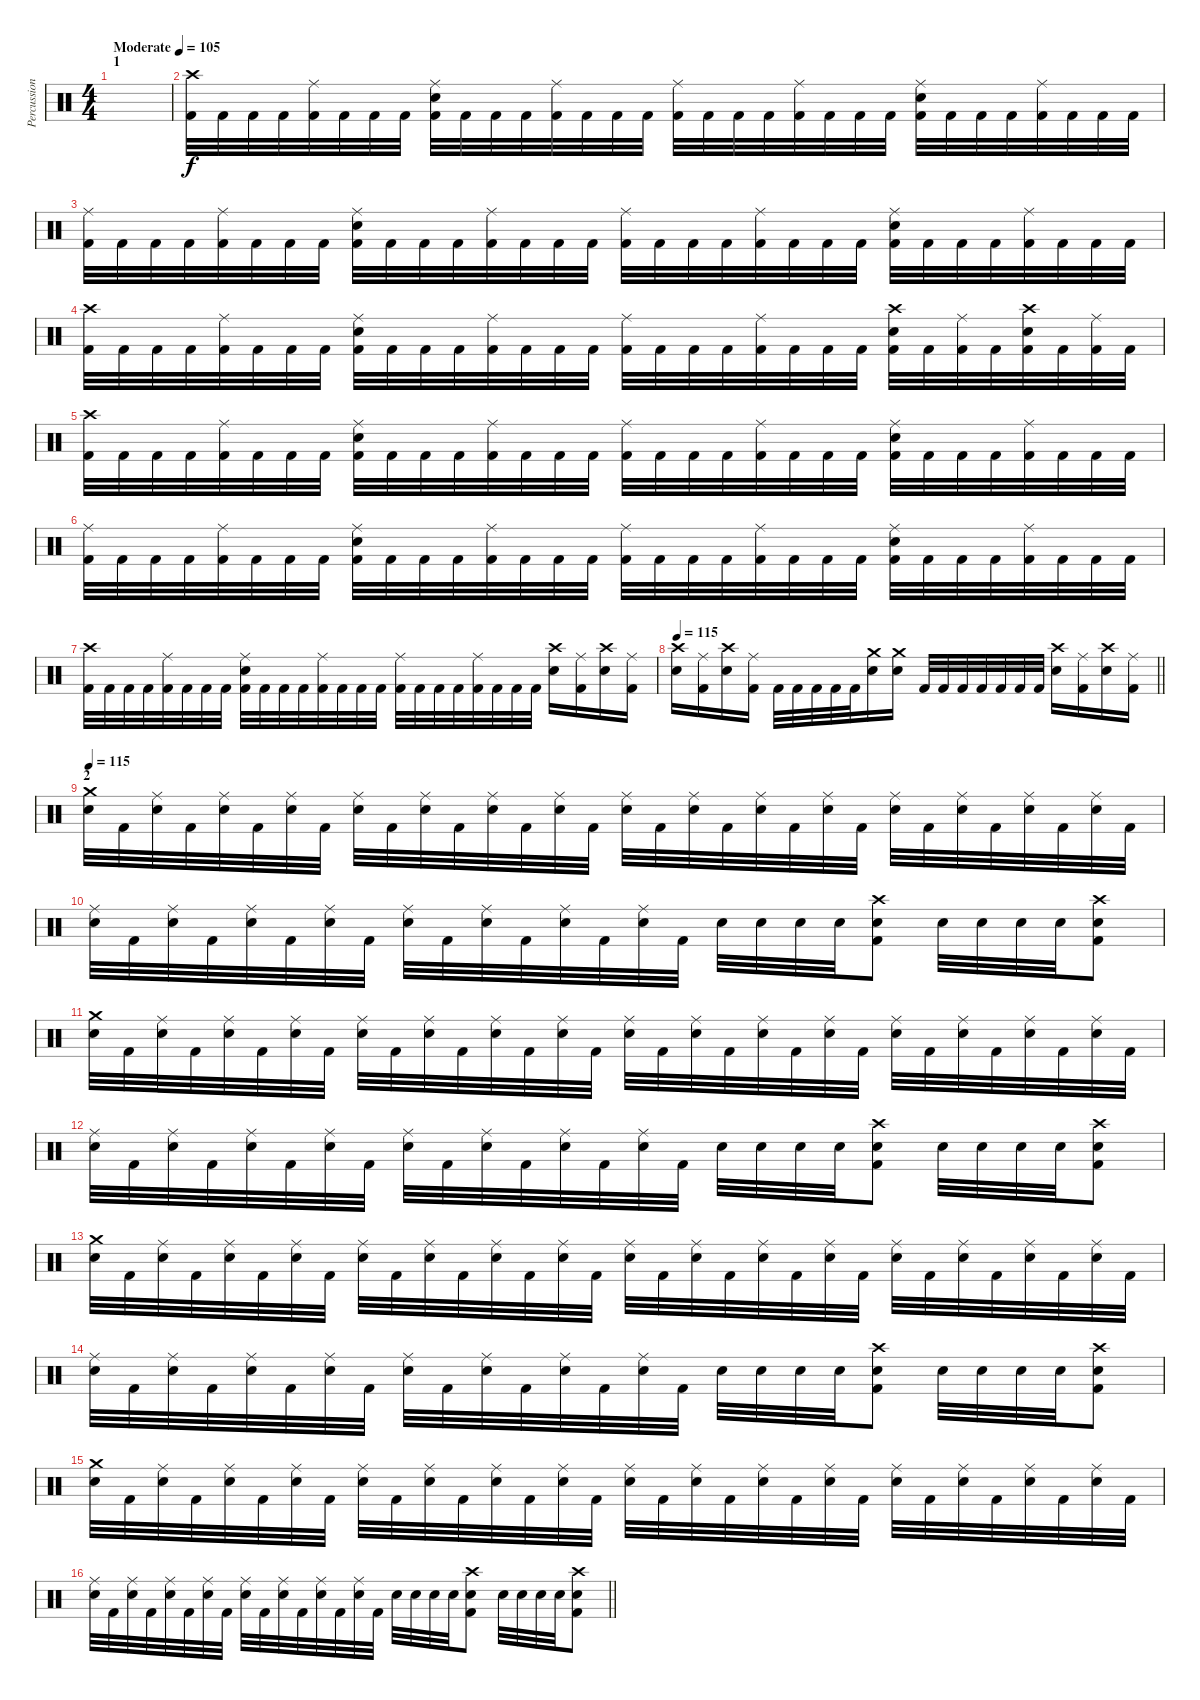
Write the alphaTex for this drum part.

\track ("Percussion" "Percussion") {instrument percussion}
\staff {score}
\articulation defaults
\ts (4 4)
\section ("" "1")
\tempo (105 "Moderate")
\clef neutral
\ks c
|
("Crash high (hit)" "Kick (hit) 2").32 "Kick (hit) 2".32 "Kick (hit) 2".32 "Kick (hit) 2".32 ("Ride (middle)" "Kick (hit) 2").32 "Kick (hit) 2".32 "Kick (hit) 2".32 "Kick (hit) 2".32 ("Ride (middle)" "Electric Snare (hit)" "Kick (hit) 2").32 "Kick (hit) 2".32 "Kick (hit) 2".32 "Kick (hit) 2".32 ("Ride (middle)" "Kick (hit) 2").32 "Kick (hit) 2".32 "Kick (hit) 2".32 "Kick (hit) 2".32 ("Ride (middle)" "Kick (hit) 2").32 "Kick (hit) 2".32 "Kick (hit) 2".32 "Kick (hit) 2".32 ("Ride (middle)" "Kick (hit) 2").32 "Kick (hit) 2".32 "Kick (hit) 2".32 "Kick (hit) 2".32 ("Ride (middle)" "Electric Snare (hit)" "Kick (hit) 2").32 "Kick (hit) 2".32 "Kick (hit) 2".32 "Kick (hit) 2".32 ("Ride (middle)" "Kick (hit) 2").32 "Kick (hit) 2".32 "Kick (hit) 2".32 "Kick (hit) 2".32 |
("Ride (middle)" "Kick (hit) 2").32 "Kick (hit) 2".32 "Kick (hit) 2".32 "Kick (hit) 2".32 ("Ride (middle)" "Kick (hit) 2").32 "Kick (hit) 2".32 "Kick (hit) 2".32 "Kick (hit) 2".32 ("Ride (middle)" "Electric Snare (hit)" "Kick (hit) 2").32 "Kick (hit) 2".32 "Kick (hit) 2".32 "Kick (hit) 2".32 ("Ride (middle)" "Kick (hit) 2").32 "Kick (hit) 2".32 "Kick (hit) 2".32 "Kick (hit) 2".32 ("Ride (middle)" "Kick (hit) 2").32 "Kick (hit) 2".32 "Kick (hit) 2".32 "Kick (hit) 2".32 ("Ride (middle)" "Kick (hit) 2").32 "Kick (hit) 2".32 "Kick (hit) 2".32 "Kick (hit) 2".32 ("Ride (middle)" "Electric Snare (hit)" "Kick (hit) 2").32 "Kick (hit) 2".32 "Kick (hit) 2".32 "Kick (hit) 2".32 ("Ride (middle)" "Kick (hit) 2").32 "Kick (hit) 2".32 "Kick (hit) 2".32 "Kick (hit) 2".32 |
("Crash high (hit)" "Kick (hit) 2").32 "Kick (hit) 2".32 "Kick (hit) 2".32 "Kick (hit) 2".32 ("Ride (middle)" "Kick (hit) 2").32 "Kick (hit) 2".32 "Kick (hit) 2".32 "Kick (hit) 2".32 ("Ride (middle)" "Electric Snare (hit)" "Kick (hit) 2").32 "Kick (hit) 2".32 "Kick (hit) 2".32 "Kick (hit) 2".32 ("Ride (middle)" "Kick (hit) 2").32 "Kick (hit) 2".32 "Kick (hit) 2".32 "Kick (hit) 2".32 ("Ride (middle)" "Kick (hit) 2").32 "Kick (hit) 2".32 "Kick (hit) 2".32 "Kick (hit) 2".32 ("Ride (middle)" "Kick (hit) 2").32 "Kick (hit) 2".32 "Kick (hit) 2".32 "Kick (hit) 2".32 ("Crash high (hit)" "Electric Snare (hit)" "Kick (hit) 2").32 "Kick (hit) 2".32 ("Ride (middle)" "Kick (hit) 2").32 "Kick (hit) 2".32 ("Crash high (hit)" "Electric Snare (hit)" "Kick (hit) 2").32 "Kick (hit) 2".32 ("Ride (middle)" "Kick (hit) 2").32 "Kick (hit) 2".32 |
("Crash high (hit)" "Kick (hit) 2").32 "Kick (hit) 2".32 "Kick (hit) 2".32 "Kick (hit) 2".32 ("Ride (middle)" "Kick (hit) 2").32 "Kick (hit) 2".32 "Kick (hit) 2".32 "Kick (hit) 2".32 ("Ride (middle)" "Electric Snare (hit)" "Kick (hit) 2").32 "Kick (hit) 2".32 "Kick (hit) 2".32 "Kick (hit) 2".32 ("Ride (middle)" "Kick (hit) 2").32 "Kick (hit) 2".32 "Kick (hit) 2".32 "Kick (hit) 2".32 ("Ride (middle)" "Kick (hit) 2").32 "Kick (hit) 2".32 "Kick (hit) 2".32 "Kick (hit) 2".32 ("Ride (middle)" "Kick (hit) 2").32 "Kick (hit) 2".32 "Kick (hit) 2".32 "Kick (hit) 2".32 ("Ride (middle)" "Electric Snare (hit)" "Kick (hit) 2").32 "Kick (hit) 2".32 "Kick (hit) 2".32 "Kick (hit) 2".32 ("Ride (middle)" "Kick (hit) 2").32 "Kick (hit) 2".32 "Kick (hit) 2".32 "Kick (hit) 2".32 |
("Ride (middle)" "Kick (hit) 2").32 "Kick (hit) 2".32 "Kick (hit) 2".32 "Kick (hit) 2".32 ("Ride (middle)" "Kick (hit) 2").32 "Kick (hit) 2".32 "Kick (hit) 2".32 "Kick (hit) 2".32 ("Ride (middle)" "Electric Snare (hit)" "Kick (hit) 2").32 "Kick (hit) 2".32 "Kick (hit) 2".32 "Kick (hit) 2".32 ("Ride (middle)" "Kick (hit) 2").32 "Kick (hit) 2".32 "Kick (hit) 2".32 "Kick (hit) 2".32 ("Ride (middle)" "Kick (hit) 2").32 "Kick (hit) 2".32 "Kick (hit) 2".32 "Kick (hit) 2".32 ("Ride (middle)" "Kick (hit) 2").32 "Kick (hit) 2".32 "Kick (hit) 2".32 "Kick (hit) 2".32 ("Ride (middle)" "Electric Snare (hit)" "Kick (hit) 2").32 "Kick (hit) 2".32 "Kick (hit) 2".32 "Kick (hit) 2".32 ("Ride (middle)" "Kick (hit) 2").32 "Kick (hit) 2".32 "Kick (hit) 2".32 "Kick (hit) 2".32 |
("Crash high (hit)" "Kick (hit) 2").32 "Kick (hit) 2".32 "Kick (hit) 2".32 "Kick (hit) 2".32 ("Ride (middle)" "Kick (hit) 2").32 "Kick (hit) 2".32 "Kick (hit) 2".32 "Kick (hit) 2".32 ("Ride (middle)" "Electric Snare (hit)" "Kick (hit) 2").32 "Kick (hit) 2".32 "Kick (hit) 2".32 "Kick (hit) 2".32 ("Ride (middle)" "Kick (hit) 2").32 "Kick (hit) 2".32 "Kick (hit) 2".32 "Kick (hit) 2".32 ("Ride (middle)" "Kick (hit) 2").32 "Kick (hit) 2".32 "Kick (hit) 2".32 "Kick (hit) 2".32 ("Ride (middle)" "Kick (hit) 2").32 "Kick (hit) 2".32 "Kick (hit) 2".32 "Kick (hit) 2".32 ("Crash high (hit)" "Electric Snare (hit)").16 ("Ride (middle)" "Kick (hit) 2").16 ("Crash high (hit)" "Electric Snare (hit)").16 ("Ride (middle)" "Kick (hit) 2").16 |
\tempo 115
\barLineRight lightlight
("Crash high (hit)" "Electric Snare (hit)").16 ("Ride (middle)" "Kick (hit) 2").16 ("Crash high (hit)" "Electric Snare (hit)").16 ("Ride (middle)" "Kick (hit) 2").16 "Kick (hit) 2".32 "Kick (hit) 2".32 "Kick (hit) 2".32 "Kick (hit) 2".32 "Kick (hit) 2".32 ("Crash medium (hit)" "Electric Snare (hit)").16 ("Crash medium (hit)" "Electric Snare (hit)").16 "Kick (hit) 2".32 "Kick (hit) 2".32 "Kick (hit) 2".32 "Kick (hit) 2".32 "Kick (hit) 2".32 "Kick (hit) 2".32 "Kick (hit) 2".32 ("Crash high (hit)" "Electric Snare (hit)").16 ("Ride (middle)" "Kick (hit) 2").16 ("Crash high (hit)" "Electric Snare (hit)").16 ("Ride (middle)" "Kick (hit) 2").16 |
\section ("" "2")
\tempo 115
("Crash medium (hit)" "Electric Snare (hit)").32 "Kick (hit) 2".32 ("Ride (middle)" "Electric Snare (hit)").32 "Kick (hit) 2".32 ("Ride (middle)" "Electric Snare (hit)").32 "Kick (hit) 2".32 ("Ride (middle)" "Electric Snare (hit)").32 "Kick (hit) 2".32 ("Ride (middle)" "Electric Snare (hit)").32 "Kick (hit) 2".32 ("Ride (middle)" "Electric Snare (hit)").32 "Kick (hit) 2".32 ("Ride (middle)" "Electric Snare (hit)").32 "Kick (hit) 2".32 ("Ride (middle)" "Electric Snare (hit)").32 "Kick (hit) 2".32 ("Ride (middle)" "Electric Snare (hit)").32 "Kick (hit) 2".32 ("Ride (middle)" "Electric Snare (hit)").32 "Kick (hit) 2".32 ("Ride (middle)" "Electric Snare (hit)").32 "Kick (hit) 2".32 ("Ride (middle)" "Electric Snare (hit)").32 "Kick (hit) 2".32 ("Ride (middle)" "Electric Snare (hit)").32 "Kick (hit) 2".32 ("Ride (middle)" "Electric Snare (hit)").32 "Kick (hit) 2".32 ("Ride (middle)" "Electric Snare (hit)").32 "Kick (hit) 2".32 ("Ride (middle)" "Electric Snare (hit)").32 "Kick (hit) 2".32 |
("Ride (middle)" "Electric Snare (hit)").32 "Kick (hit) 2".32 ("Ride (middle)" "Electric Snare (hit)").32 "Kick (hit) 2".32 ("Ride (middle)" "Electric Snare (hit)").32 "Kick (hit) 2".32 ("Ride (middle)" "Electric Snare (hit)").32 "Kick (hit) 2".32 ("Ride (middle)" "Electric Snare (hit)").32 "Kick (hit) 2".32 ("Ride (middle)" "Electric Snare (hit)").32 "Kick (hit) 2".32 ("Ride (middle)" "Electric Snare (hit)").32 "Kick (hit) 2".32 ("Ride (middle)" "Electric Snare (hit)").32 "Kick (hit) 2".32 "Electric Snare (hit)".32 "Electric Snare (hit)".32 "Electric Snare (hit)".32 "Electric Snare (hit)".32 ("Crash high (hit)" "Electric Snare (hit)" "Kick (hit) 2").8 "Electric Snare (hit)".32 "Electric Snare (hit)".32 "Electric Snare (hit)".32 "Electric Snare (hit)".32 ("Crash high (hit)" "Electric Snare (hit)" "Kick (hit) 2").8 |
("Crash medium (hit)" "Electric Snare (hit)").32 "Kick (hit) 2".32 ("Ride (middle)" "Electric Snare (hit)").32 "Kick (hit) 2".32 ("Ride (middle)" "Electric Snare (hit)").32 "Kick (hit) 2".32 ("Ride (middle)" "Electric Snare (hit)").32 "Kick (hit) 2".32 ("Ride (middle)" "Electric Snare (hit)").32 "Kick (hit) 2".32 ("Ride (middle)" "Electric Snare (hit)").32 "Kick (hit) 2".32 ("Ride (middle)" "Electric Snare (hit)").32 "Kick (hit) 2".32 ("Ride (middle)" "Electric Snare (hit)").32 "Kick (hit) 2".32 ("Ride (middle)" "Electric Snare (hit)").32 "Kick (hit) 2".32 ("Ride (middle)" "Electric Snare (hit)").32 "Kick (hit) 2".32 ("Ride (middle)" "Electric Snare (hit)").32 "Kick (hit) 2".32 ("Ride (middle)" "Electric Snare (hit)").32 "Kick (hit) 2".32 ("Ride (middle)" "Electric Snare (hit)").32 "Kick (hit) 2".32 ("Ride (middle)" "Electric Snare (hit)").32 "Kick (hit) 2".32 ("Ride (middle)" "Electric Snare (hit)").32 "Kick (hit) 2".32 ("Ride (middle)" "Electric Snare (hit)").32 "Kick (hit) 2".32 |
("Ride (middle)" "Electric Snare (hit)").32 "Kick (hit) 2".32 ("Ride (middle)" "Electric Snare (hit)").32 "Kick (hit) 2".32 ("Ride (middle)" "Electric Snare (hit)").32 "Kick (hit) 2".32 ("Ride (middle)" "Electric Snare (hit)").32 "Kick (hit) 2".32 ("Ride (middle)" "Electric Snare (hit)").32 "Kick (hit) 2".32 ("Ride (middle)" "Electric Snare (hit)").32 "Kick (hit) 2".32 ("Ride (middle)" "Electric Snare (hit)").32 "Kick (hit) 2".32 ("Ride (middle)" "Electric Snare (hit)").32 "Kick (hit) 2".32 "Electric Snare (hit)".32 "Electric Snare (hit)".32 "Electric Snare (hit)".32 "Electric Snare (hit)".32 ("Crash high (hit)" "Electric Snare (hit)" "Kick (hit) 2").8 "Electric Snare (hit)".32 "Electric Snare (hit)".32 "Electric Snare (hit)".32 "Electric Snare (hit)".32 ("Crash high (hit)" "Electric Snare (hit)" "Kick (hit) 2").8 |
("Crash medium (hit)" "Electric Snare (hit)").32 "Kick (hit) 2".32 ("Ride (middle)" "Electric Snare (hit)").32 "Kick (hit) 2".32 ("Ride (middle)" "Electric Snare (hit)").32 "Kick (hit) 2".32 ("Ride (middle)" "Electric Snare (hit)").32 "Kick (hit) 2".32 ("Ride (middle)" "Electric Snare (hit)").32 "Kick (hit) 2".32 ("Ride (middle)" "Electric Snare (hit)").32 "Kick (hit) 2".32 ("Ride (middle)" "Electric Snare (hit)").32 "Kick (hit) 2".32 ("Ride (middle)" "Electric Snare (hit)").32 "Kick (hit) 2".32 ("Ride (middle)" "Electric Snare (hit)").32 "Kick (hit) 2".32 ("Ride (middle)" "Electric Snare (hit)").32 "Kick (hit) 2".32 ("Ride (middle)" "Electric Snare (hit)").32 "Kick (hit) 2".32 ("Ride (middle)" "Electric Snare (hit)").32 "Kick (hit) 2".32 ("Ride (middle)" "Electric Snare (hit)").32 "Kick (hit) 2".32 ("Ride (middle)" "Electric Snare (hit)").32 "Kick (hit) 2".32 ("Ride (middle)" "Electric Snare (hit)").32 "Kick (hit) 2".32 ("Ride (middle)" "Electric Snare (hit)").32 "Kick (hit) 2".32 |
("Ride (middle)" "Electric Snare (hit)").32 "Kick (hit) 2".32 ("Ride (middle)" "Electric Snare (hit)").32 "Kick (hit) 2".32 ("Ride (middle)" "Electric Snare (hit)").32 "Kick (hit) 2".32 ("Ride (middle)" "Electric Snare (hit)").32 "Kick (hit) 2".32 ("Ride (middle)" "Electric Snare (hit)").32 "Kick (hit) 2".32 ("Ride (middle)" "Electric Snare (hit)").32 "Kick (hit) 2".32 ("Ride (middle)" "Electric Snare (hit)").32 "Kick (hit) 2".32 ("Ride (middle)" "Electric Snare (hit)").32 "Kick (hit) 2".32 "Electric Snare (hit)".32 "Electric Snare (hit)".32 "Electric Snare (hit)".32 "Electric Snare (hit)".32 ("Crash high (hit)" "Electric Snare (hit)" "Kick (hit) 2").8 "Electric Snare (hit)".32 "Electric Snare (hit)".32 "Electric Snare (hit)".32 "Electric Snare (hit)".32 ("Crash high (hit)" "Electric Snare (hit)" "Kick (hit) 2").8 |
("Crash medium (hit)" "Electric Snare (hit)").32 "Kick (hit) 2".32 ("Ride (middle)" "Electric Snare (hit)").32 "Kick (hit) 2".32 ("Ride (middle)" "Electric Snare (hit)").32 "Kick (hit) 2".32 ("Ride (middle)" "Electric Snare (hit)").32 "Kick (hit) 2".32 ("Ride (middle)" "Electric Snare (hit)").32 "Kick (hit) 2".32 ("Ride (middle)" "Electric Snare (hit)").32 "Kick (hit) 2".32 ("Ride (middle)" "Electric Snare (hit)").32 "Kick (hit) 2".32 ("Ride (middle)" "Electric Snare (hit)").32 "Kick (hit) 2".32 ("Ride (middle)" "Electric Snare (hit)").32 "Kick (hit) 2".32 ("Ride (middle)" "Electric Snare (hit)").32 "Kick (hit) 2".32 ("Ride (middle)" "Electric Snare (hit)").32 "Kick (hit) 2".32 ("Ride (middle)" "Electric Snare (hit)").32 "Kick (hit) 2".32 ("Ride (middle)" "Electric Snare (hit)").32 "Kick (hit) 2".32 ("Ride (middle)" "Electric Snare (hit)").32 "Kick (hit) 2".32 ("Ride (middle)" "Electric Snare (hit)").32 "Kick (hit) 2".32 ("Ride (middle)" "Electric Snare (hit)").32 "Kick (hit) 2".32 |
\barLineRight lightlight
("Ride (middle)" "Electric Snare (hit)").32 "Kick (hit) 2".32 ("Ride (middle)" "Electric Snare (hit)").32 "Kick (hit) 2".32 ("Ride (middle)" "Electric Snare (hit)").32 "Kick (hit) 2".32 ("Ride (middle)" "Electric Snare (hit)").32 "Kick (hit) 2".32 ("Ride (middle)" "Electric Snare (hit)").32 "Kick (hit) 2".32 ("Ride (middle)" "Electric Snare (hit)").32 "Kick (hit) 2".32 ("Ride (middle)" "Electric Snare (hit)").32 "Kick (hit) 2".32 ("Ride (middle)" "Electric Snare (hit)").32 "Kick (hit) 2".32 "Electric Snare (hit)".32 "Electric Snare (hit)".32 "Electric Snare (hit)".32 "Electric Snare (hit)".32 ("Crash high (hit)" "Electric Snare (hit)" "Kick (hit) 2").8 "Electric Snare (hit)".32 "Electric Snare (hit)".32 "Electric Snare (hit)".32 "Electric Snare (hit)".32 ("Crash high (hit)" "Electric Snare (hit)" "Kick (hit) 2").8
